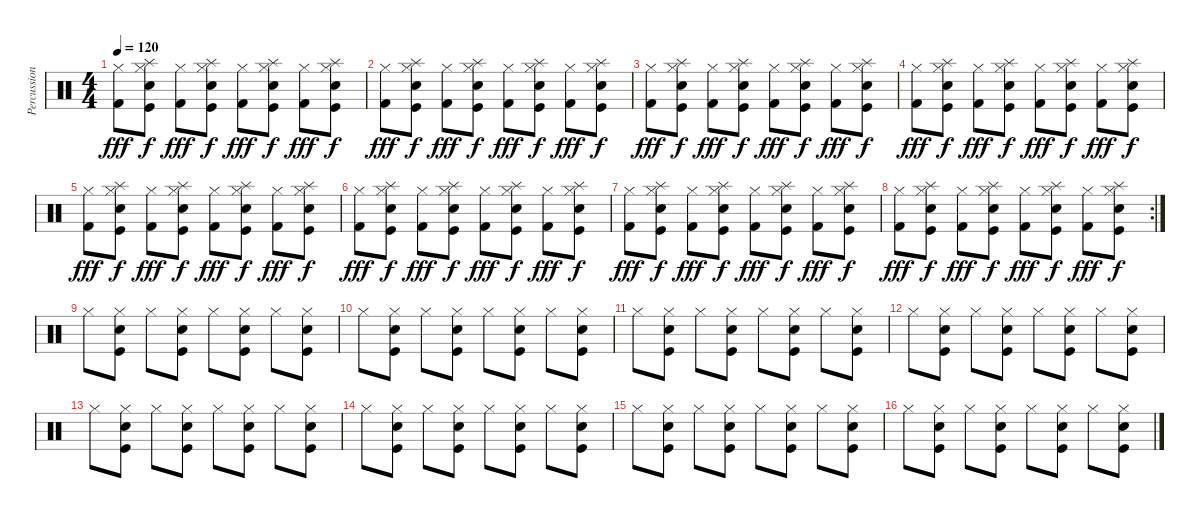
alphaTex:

\track ("Percussion-Alex" "Percussion") {instrument percussion}
\staff {score}
\articulation defaults
\ts (4 4)
\tempo 120
\clef neutral
\ks c
("Hi-Hat (closed)" "Kick (hit) 2").8{dy fff} ("Splash (hit)" "Snare (hit) 2" "Hi-Hat (closed)" "Kick (hit)").8{dy f} ("Hi-Hat (closed)" "Kick (hit) 2").8{dy fff} ("Splash (hit)" "Snare (hit) 2" "Hi-Hat (closed)" "Kick (hit)").8{dy f} ("Hi-Hat (closed)" "Kick (hit) 2").8{dy fff} ("Splash (hit)" "Snare (hit) 2" "Hi-Hat (closed)" "Kick (hit)").8{dy f} ("Hi-Hat (closed)" "Kick (hit) 2").8{dy fff} ("Splash (hit)" "Snare (hit) 2" "Hi-Hat (closed)" "Kick (hit)").8{dy f} |
("Hi-Hat (closed)" "Kick (hit) 2").8{dy fff} ("Splash (hit)" "Snare (hit) 2" "Hi-Hat (closed)" "Kick (hit)").8{dy f} ("Hi-Hat (closed)" "Kick (hit) 2").8{dy fff} ("Splash (hit)" "Snare (hit) 2" "Hi-Hat (closed)" "Kick (hit)").8{dy f} ("Hi-Hat (closed)" "Kick (hit) 2").8{dy fff} ("Splash (hit)" "Snare (hit) 2" "Hi-Hat (closed)" "Kick (hit)").8{dy f} ("Hi-Hat (closed)" "Kick (hit) 2").8{dy fff} ("Splash (hit)" "Snare (hit) 2" "Hi-Hat (closed)" "Kick (hit)").8{dy f} |
("Hi-Hat (closed)" "Kick (hit) 2").8{dy fff} ("Splash (hit)" "Snare (hit) 2" "Hi-Hat (closed)" "Kick (hit)").8{dy f} ("Hi-Hat (closed)" "Kick (hit) 2").8{dy fff} ("Splash (hit)" "Snare (hit) 2" "Hi-Hat (closed)" "Kick (hit)").8{dy f} ("Hi-Hat (closed)" "Kick (hit) 2").8{dy fff} ("Splash (hit)" "Snare (hit) 2" "Hi-Hat (closed)" "Kick (hit)").8{dy f} ("Hi-Hat (closed)" "Kick (hit) 2").8{dy fff} ("Splash (hit)" "Snare (hit) 2" "Hi-Hat (closed)" "Kick (hit)").8{dy f} |
("Hi-Hat (closed)" "Kick (hit) 2").8{dy fff} ("Splash (hit)" "Snare (hit) 2" "Hi-Hat (closed)" "Kick (hit)").8{dy f} ("Hi-Hat (closed)" "Kick (hit) 2").8{dy fff} ("Splash (hit)" "Snare (hit) 2" "Hi-Hat (closed)" "Kick (hit)").8{dy f} ("Hi-Hat (closed)" "Kick (hit) 2").8{dy fff} ("Splash (hit)" "Snare (hit) 2" "Hi-Hat (closed)" "Kick (hit)").8{dy f} ("Hi-Hat (closed)" "Kick (hit) 2").8{dy fff} ("Splash (hit)" "Snare (hit) 2" "Hi-Hat (closed)" "Kick (hit)").8{dy f} |
("Hi-Hat (closed)" "Kick (hit) 2").8{dy fff} ("Splash (hit)" "Snare (hit) 2" "Hi-Hat (closed)" "Kick (hit)").8{dy f} ("Hi-Hat (closed)" "Kick (hit) 2").8{dy fff} ("Splash (hit)" "Snare (hit) 2" "Hi-Hat (closed)" "Kick (hit)").8{dy f} ("Hi-Hat (closed)" "Kick (hit) 2").8{dy fff} ("Splash (hit)" "Snare (hit) 2" "Hi-Hat (closed)" "Kick (hit)").8{dy f} ("Hi-Hat (closed)" "Kick (hit) 2").8{dy fff} ("Splash (hit)" "Snare (hit) 2" "Hi-Hat (closed)" "Kick (hit)").8{dy f} |
("Hi-Hat (closed)" "Kick (hit) 2").8{dy fff} ("Splash (hit)" "Snare (hit) 2" "Hi-Hat (closed)" "Kick (hit)").8{dy f} ("Hi-Hat (closed)" "Kick (hit) 2").8{dy fff} ("Splash (hit)" "Snare (hit) 2" "Hi-Hat (closed)" "Kick (hit)").8{dy f} ("Hi-Hat (closed)" "Kick (hit) 2").8{dy fff} ("Splash (hit)" "Snare (hit) 2" "Hi-Hat (closed)" "Kick (hit)").8{dy f} ("Hi-Hat (closed)" "Kick (hit) 2").8{dy fff} ("Splash (hit)" "Snare (hit) 2" "Hi-Hat (closed)" "Kick (hit)").8{dy f} |
("Hi-Hat (closed)" "Kick (hit) 2").8{dy fff} ("Splash (hit)" "Snare (hit) 2" "Hi-Hat (closed)" "Kick (hit)").8{dy f} ("Hi-Hat (closed)" "Kick (hit) 2").8{dy fff} ("Splash (hit)" "Snare (hit) 2" "Hi-Hat (closed)" "Kick (hit)").8{dy f} ("Hi-Hat (closed)" "Kick (hit) 2").8{dy fff} ("Splash (hit)" "Snare (hit) 2" "Hi-Hat (closed)" "Kick (hit)").8{dy f} ("Hi-Hat (closed)" "Kick (hit) 2").8{dy fff} ("Splash (hit)" "Snare (hit) 2" "Hi-Hat (closed)" "Kick (hit)").8{dy f} |
\rc 2
("Hi-Hat (closed)" "Kick (hit) 2").8{dy fff} ("Splash (hit)" "Snare (hit) 2" "Hi-Hat (closed)" "Kick (hit)").8{dy f} ("Hi-Hat (closed)" "Kick (hit) 2").8{dy fff} ("Splash (hit)" "Snare (hit) 2" "Hi-Hat (closed)" "Kick (hit)").8{dy f} ("Hi-Hat (closed)" "Kick (hit) 2").8{dy fff} ("Splash (hit)" "Snare (hit) 2" "Hi-Hat (closed)" "Kick (hit)").8{dy f} ("Hi-Hat (closed)" "Kick (hit) 2").8{dy fff} ("Splash (hit)" "Snare (hit) 2" "Hi-Hat (closed)" "Kick (hit)").8{dy f} |
"Hi-Hat (closed)".8 ("Snare (hit) 2" "Hi-Hat (closed)" "Kick (hit)").8 "Hi-Hat (closed)".8 ("Snare (hit) 2" "Hi-Hat (closed)" "Kick (hit)").8 "Hi-Hat (closed)".8 ("Snare (hit) 2" "Hi-Hat (closed)" "Kick (hit)").8 "Hi-Hat (closed)".8 ("Snare (hit) 2" "Hi-Hat (closed)" "Kick (hit)").8 |
"Hi-Hat (closed)".8 ("Snare (hit) 2" "Hi-Hat (closed)" "Kick (hit)").8 "Hi-Hat (closed)".8 ("Snare (hit) 2" "Hi-Hat (closed)" "Kick (hit)").8 "Hi-Hat (closed)".8 ("Snare (hit) 2" "Hi-Hat (closed)" "Kick (hit)").8 "Hi-Hat (closed)".8 ("Snare (hit) 2" "Hi-Hat (closed)" "Kick (hit)").8 |
"Hi-Hat (closed)".8 ("Snare (hit) 2" "Hi-Hat (closed)" "Kick (hit)").8 "Hi-Hat (closed)".8 ("Snare (hit) 2" "Hi-Hat (closed)" "Kick (hit)").8 "Hi-Hat (closed)".8 ("Snare (hit) 2" "Hi-Hat (closed)" "Kick (hit)").8 "Hi-Hat (closed)".8 ("Snare (hit) 2" "Hi-Hat (closed)" "Kick (hit)").8 |
"Hi-Hat (closed)".8 ("Snare (hit) 2" "Hi-Hat (closed)" "Kick (hit)").8 "Hi-Hat (closed)".8 ("Snare (hit) 2" "Hi-Hat (closed)" "Kick (hit)").8 "Hi-Hat (closed)".8 ("Snare (hit) 2" "Hi-Hat (closed)" "Kick (hit)").8 "Hi-Hat (closed)".8 ("Snare (hit) 2" "Hi-Hat (closed)" "Kick (hit)").8 |
"Hi-Hat (closed)".8 ("Snare (hit) 2" "Hi-Hat (closed)" "Kick (hit)").8 "Hi-Hat (closed)".8 ("Snare (hit) 2" "Hi-Hat (closed)" "Kick (hit)").8 "Hi-Hat (closed)".8 ("Snare (hit) 2" "Hi-Hat (closed)" "Kick (hit)").8 "Hi-Hat (closed)".8 ("Snare (hit) 2" "Hi-Hat (closed)" "Kick (hit)").8 |
"Hi-Hat (closed)".8 ("Snare (hit) 2" "Hi-Hat (closed)" "Kick (hit)").8 "Hi-Hat (closed)".8 ("Snare (hit) 2" "Hi-Hat (closed)" "Kick (hit)").8 "Hi-Hat (closed)".8 ("Snare (hit) 2" "Hi-Hat (closed)" "Kick (hit)").8 "Hi-Hat (closed)".8 ("Snare (hit) 2" "Hi-Hat (closed)" "Kick (hit)").8 |
"Hi-Hat (closed)".8 ("Snare (hit) 2" "Hi-Hat (closed)" "Kick (hit)").8 "Hi-Hat (closed)".8 ("Snare (hit) 2" "Hi-Hat (closed)" "Kick (hit)").8 "Hi-Hat (closed)".8 ("Snare (hit) 2" "Hi-Hat (closed)" "Kick (hit)").8 "Hi-Hat (closed)".8 ("Snare (hit) 2" "Hi-Hat (closed)" "Kick (hit)").8 |
"Hi-Hat (closed)".8 ("Snare (hit) 2" "Hi-Hat (closed)" "Kick (hit)").8 "Hi-Hat (closed)".8 ("Snare (hit) 2" "Hi-Hat (closed)" "Kick (hit)").8 "Hi-Hat (closed)".8 ("Snare (hit) 2" "Hi-Hat (closed)" "Kick (hit)").8 "Hi-Hat (closed)".8 ("Snare (hit) 2" "Hi-Hat (closed)" "Kick (hit)").8
